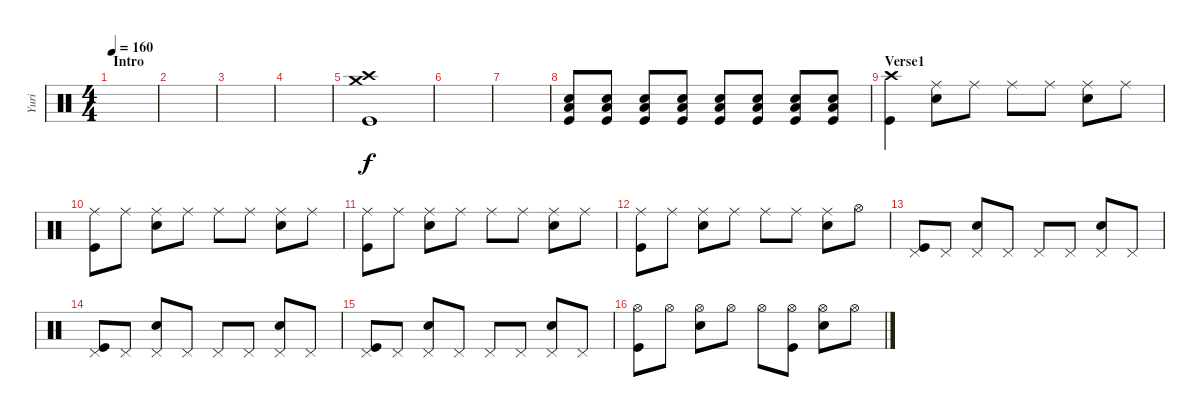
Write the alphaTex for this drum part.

\track ("Yuri" "Yuri") {instrument percussion}
\staff {score}
\articulation defaults
\ts (4 4)
\section ("" "Intro")
\tempo 160
\clef neutral
\ks c
|
|
|
|
("Crash high (hit)" "Crash medium (hit)" "Kick (hit)").1 |
|
|
("Low Tom (hit)" "Snare (hit) 2" "Kick (hit)").8 ("Low Tom (hit)" "Snare (hit) 2" "Kick (hit)").8 ("Low Tom (hit)" "Snare (hit) 2" "Kick (hit)").8 ("Low Tom (hit)" "Snare (hit) 2" "Kick (hit)").8 ("Low Tom (hit)" "Snare (hit) 2" "Kick (hit)").8 ("Low Tom (hit)" "Snare (hit) 2" "Kick (hit)").8 ("Low Tom (hit)" "Snare (hit) 2" "Kick (hit)").8 ("Low Tom (hit)" "Snare (hit) 2" "Kick (hit)").8 |
\section ("" "Verse1")
("Crash high (hit)" "Kick (hit)").4 ("Ride (middle)" "Snare (hit) 2").8 "Ride (middle)".8 "Ride (middle)".8 "Ride (middle)".8 ("Ride (middle)" "Snare (hit) 2").8 "Ride (middle)".8 |
("Ride (middle)" "Kick (hit)").8 "Ride (middle)".8 ("Ride (middle)" "Snare (hit) 2").8 "Ride (middle)".8 "Ride (middle)".8 "Ride (middle)".8 ("Ride (middle)" "Snare (hit) 2").8 "Ride (middle)".8 |
("Ride (middle)" "Kick (hit)").8 "Ride (middle)".8 ("Ride (middle)" "Snare (hit) 2").8 "Ride (middle)".8 "Ride (middle)".8 "Ride (middle)".8 ("Ride (middle)" "Snare (hit) 2").8 "Ride (middle)".8 |
("Ride (middle)" "Kick (hit)").8 "Ride (middle)".8 ("Ride (middle)" "Snare (hit) 2").8 "Ride (middle)".8 "Ride (middle)".8 "Ride (middle)".8 ("Ride (middle)" "Snare (hit) 2").8 "Hi-Hat (open)".8 |
("Pedal Hi-Hat (hit)" "Kick (hit)").8 "Pedal Hi-Hat (hit)".8 ("Pedal Hi-Hat (hit)" "Snare (hit) 2").8 "Pedal Hi-Hat (hit)".8 "Pedal Hi-Hat (hit)".8 "Pedal Hi-Hat (hit)".8 ("Pedal Hi-Hat (hit)" "Snare (hit) 2").8 "Pedal Hi-Hat (hit)".8 |
("Pedal Hi-Hat (hit)" "Kick (hit)").8 "Pedal Hi-Hat (hit)".8 ("Pedal Hi-Hat (hit)" "Snare (hit) 2").8 "Pedal Hi-Hat (hit)".8 "Pedal Hi-Hat (hit)".8 "Pedal Hi-Hat (hit)".8 ("Pedal Hi-Hat (hit)" "Snare (hit) 2").8 "Pedal Hi-Hat (hit)".8 |
("Pedal Hi-Hat (hit)" "Kick (hit)").8 "Pedal Hi-Hat (hit)".8 ("Pedal Hi-Hat (hit)" "Snare (hit) 2").8 "Pedal Hi-Hat (hit)".8 "Pedal Hi-Hat (hit)".8 "Pedal Hi-Hat (hit)".8 ("Pedal Hi-Hat (hit)" "Snare (hit) 2").8 "Pedal Hi-Hat (hit)".8 |
("Hi-Hat (open)" "Kick (hit)").8 "Hi-Hat (open)".8 ("Hi-Hat (open)" "Snare (hit) 2").8 "Hi-Hat (open)".8 "Hi-Hat (open)".8 ("Hi-Hat (open)" "Kick (hit)").8 ("Hi-Hat (open)" "Snare (hit) 2").8 "Hi-Hat (open)".8
